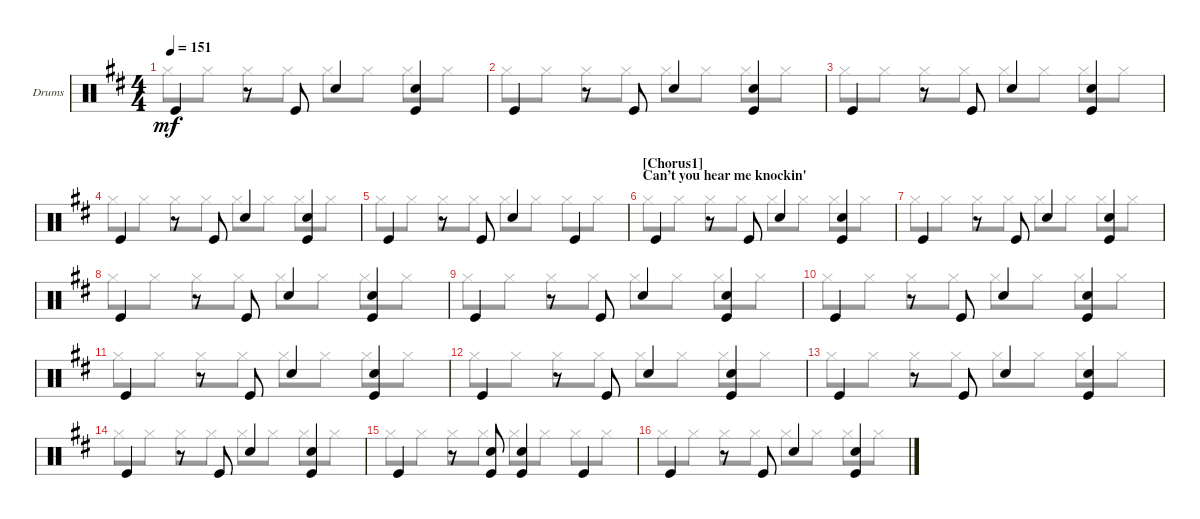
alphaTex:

\bracketExtendMode groupsimilarinstruments
\firstSystemTrackNameOrientation horizontal
\otherSystemsTrackNameOrientation horizontal
\track ("Drumkit" "Drums") {instrument percussion}
\staff {score}
\articulation defaults
\voice
\ts (4 4)
\tempo 151
\clef neutral
\ks d "Kick (hit)".4{dy mf}
r.8 "Kick (hit)".8 "Snare (hit) 2".4 ("Kick (hit)" "Snare (hit) 2").4 |
"Kick (hit)".4 r.8 "Kick (hit)".8 "Snare (hit) 2".4 ("Kick (hit)" "Snare (hit) 2").4 |
"Kick (hit)".4 r.8 "Kick (hit)".8 "Snare (hit) 2".4 ("Kick (hit)" "Snare (hit) 2").4 |
"Kick (hit)".4 r.8 "Kick (hit)".8 "Snare (hit) 2".4 ("Kick (hit)" "Snare (hit) 2").4 |
"Kick (hit)".4 r.8 "Kick (hit)".8 "Snare (hit) 2".4 "Kick (hit)".4 |
\section ("" "[Chorus1]\nCan’t you hear me knockin'\n")
"Kick (hit)".4 r.8 "Kick (hit)".8 "Snare (hit) 2".4 ("Kick (hit)" "Snare (hit) 2").4 |
"Kick (hit)".4 r.8 "Kick (hit)".8 "Snare (hit) 2".4 ("Kick (hit)" "Snare (hit) 2").4 |
"Kick (hit)".4 r.8 "Kick (hit)".8 "Snare (hit) 2".4 ("Kick (hit)" "Snare (hit) 2").4 |
"Kick (hit)".4 r.8 "Kick (hit)".8 "Snare (hit) 2".4 ("Kick (hit)" "Snare (hit) 2").4 |
"Kick (hit)".4 r.8 "Kick (hit)".8 "Snare (hit) 2".4 ("Kick (hit)" "Snare (hit) 2").4 |
"Kick (hit)".4 r.8 "Kick (hit)".8 "Snare (hit) 2".4 ("Kick (hit)" "Snare (hit) 2").4 |
"Kick (hit)".4 r.8 "Kick (hit)".8 "Snare (hit) 2".4 ("Kick (hit)" "Snare (hit) 2").4 |
"Kick (hit)".4 r.8 "Kick (hit)".8 "Snare (hit) 2".4 ("Kick (hit)" "Snare (hit) 2").4 |
"Kick (hit)".4 r.8 "Kick (hit)".8 "Snare (hit) 2".4 ("Kick (hit)" "Snare (hit) 2").4 |
"Kick (hit)".4 r.8 ("Kick (hit)" "Snare (hit) 2").8 ("Kick (hit)" "Snare (hit) 2").4 "Kick (hit)".4 |
"Kick (hit)".4 r.8 "Kick (hit)".8 "Snare (hit) 2".4 ("Kick (hit)" "Snare (hit) 2").4
\voice
\clef neutral
\ottava regular
\simile none
\ks d "Hi-Hat (closed)".8{dy mf} "Hi-Hat (closed)".8 "Hi-Hat (closed)".8 "Hi-Hat (closed)".8 "Hi-Hat (closed)".8 "Hi-Hat (closed)".8 "Hi-Hat (closed)".8 "Hi-Hat (closed)".8
|
"Hi-Hat (closed)".8 "Hi-Hat (closed)".8 "Hi-Hat (closed)".8 "Hi-Hat (closed)".8 "Hi-Hat (closed)".8 "Hi-Hat (closed)".8 "Hi-Hat (closed)".8 "Hi-Hat (closed)".8 |
"Hi-Hat (closed)".8 "Hi-Hat (closed)".8 "Hi-Hat (closed)".8 "Hi-Hat (closed)".8 "Hi-Hat (closed)".8 "Hi-Hat (closed)".8 "Hi-Hat (closed)".8 "Hi-Hat (closed)".8 |
"Hi-Hat (closed)".8 "Hi-Hat (closed)".8 "Hi-Hat (closed)".8 "Hi-Hat (closed)".8 "Hi-Hat (closed)".8 "Hi-Hat (closed)".8 "Hi-Hat (closed)".8 "Hi-Hat (closed)".8 |
"Hi-Hat (closed)".8 "Hi-Hat (closed)".8 "Hi-Hat (closed)".8 "Hi-Hat (closed)".8 "Hi-Hat (closed)".8 "Hi-Hat (closed)".8 "Hi-Hat (closed)".8 "Hi-Hat (closed)".8 |
"Hi-Hat (closed)".8 "Hi-Hat (closed)".8 "Hi-Hat (closed)".8 "Hi-Hat (closed)".8 "Hi-Hat (closed)".8 "Hi-Hat (closed)".8 "Hi-Hat (closed)".8 "Hi-Hat (closed)".8 |
"Hi-Hat (closed)".8 "Hi-Hat (closed)".8 "Hi-Hat (closed)".8 "Hi-Hat (closed)".8 "Hi-Hat (closed)".8 "Hi-Hat (closed)".8 "Hi-Hat (closed)".8 "Hi-Hat (closed)".8 |
"Hi-Hat (closed)".8 "Hi-Hat (closed)".8 "Hi-Hat (closed)".8 "Hi-Hat (closed)".8 "Hi-Hat (closed)".8 "Hi-Hat (closed)".8 "Hi-Hat (closed)".8 "Hi-Hat (closed)".8 |
"Hi-Hat (closed)".8 "Hi-Hat (closed)".8 "Hi-Hat (closed)".8 "Hi-Hat (closed)".8 "Hi-Hat (closed)".8 "Hi-Hat (closed)".8 "Hi-Hat (closed)".8 "Hi-Hat (closed)".8 |
"Hi-Hat (closed)".8 "Hi-Hat (closed)".8 "Hi-Hat (closed)".8 "Hi-Hat (closed)".8 "Hi-Hat (closed)".8 "Hi-Hat (closed)".8 "Hi-Hat (closed)".8 "Hi-Hat (closed)".8 |
"Hi-Hat (closed)".8 "Hi-Hat (closed)".8 "Hi-Hat (closed)".8 "Hi-Hat (closed)".8 "Hi-Hat (closed)".8 "Hi-Hat (closed)".8 "Hi-Hat (closed)".8 "Hi-Hat (closed)".8 |
"Hi-Hat (closed)".8 "Hi-Hat (closed)".8 "Hi-Hat (closed)".8 "Hi-Hat (closed)".8 "Hi-Hat (closed)".8 "Hi-Hat (closed)".8 "Hi-Hat (closed)".8 "Hi-Hat (closed)".8 |
"Hi-Hat (closed)".8 "Hi-Hat (closed)".8 "Hi-Hat (closed)".8 "Hi-Hat (closed)".8 "Hi-Hat (closed)".8 "Hi-Hat (closed)".8 "Hi-Hat (closed)".8 "Hi-Hat (closed)".8 |
"Hi-Hat (closed)".8 "Hi-Hat (closed)".8 "Hi-Hat (closed)".8 "Hi-Hat (closed)".8 "Hi-Hat (closed)".8 "Hi-Hat (closed)".8 "Hi-Hat (closed)".8 "Hi-Hat (closed)".8 |
"Hi-Hat (closed)".8 "Hi-Hat (closed)".8 "Hi-Hat (closed)".8 "Hi-Hat (closed)".8 "Hi-Hat (closed)".8 "Hi-Hat (closed)".8 "Hi-Hat (closed)".8 "Hi-Hat (closed)".8 |
"Hi-Hat (closed)".8 "Hi-Hat (closed)".8 "Hi-Hat (closed)".8 "Hi-Hat (closed)".8 "Hi-Hat (closed)".8 "Hi-Hat (closed)".8 "Hi-Hat (closed)".8 "Hi-Hat (closed)".8
